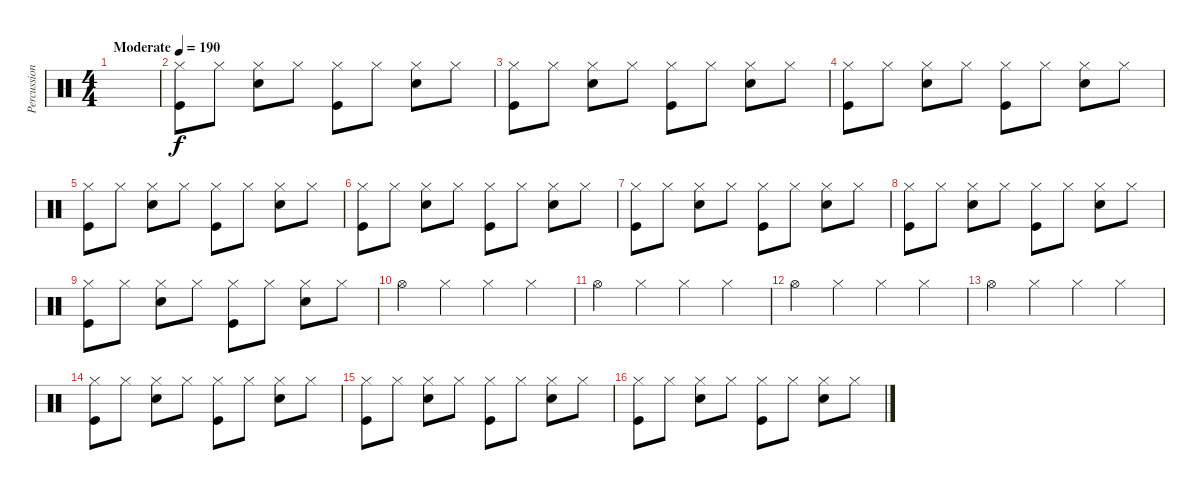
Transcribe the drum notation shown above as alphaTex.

\track ("Percussion" "Percussion") {instrument percussion}
\staff {score}
\articulation defaults
\ts (4 4)
\tempo (190 "Moderate")
\clef neutral
\ks c
|
("Hi-Hat (closed)" "Kick (hit)").8 "Hi-Hat (closed)".8 ("Hi-Hat (closed)" "Electric Snare (hit)").8 "Hi-Hat (closed)".8 ("Hi-Hat (closed)" "Kick (hit)").8 "Hi-Hat (closed)".8 ("Hi-Hat (closed)" "Electric Snare (hit)").8 "Hi-Hat (closed)".8 |
("Hi-Hat (closed)" "Kick (hit)").8 "Hi-Hat (closed)".8 ("Hi-Hat (closed)" "Electric Snare (hit)").8 "Hi-Hat (closed)".8 ("Hi-Hat (closed)" "Kick (hit)").8 "Hi-Hat (closed)".8 ("Hi-Hat (closed)" "Electric Snare (hit)").8 "Hi-Hat (closed)".8 |
("Hi-Hat (closed)" "Kick (hit)").8 "Hi-Hat (closed)".8 ("Hi-Hat (closed)" "Electric Snare (hit)").8 "Hi-Hat (closed)".8 ("Hi-Hat (closed)" "Kick (hit)").8 "Hi-Hat (closed)".8 ("Hi-Hat (closed)" "Electric Snare (hit)").8 "Hi-Hat (closed)".8 |
("Hi-Hat (closed)" "Kick (hit)").8 "Hi-Hat (closed)".8 ("Hi-Hat (closed)" "Electric Snare (hit)").8 "Hi-Hat (closed)".8 ("Hi-Hat (closed)" "Kick (hit)").8 "Hi-Hat (closed)".8 ("Hi-Hat (closed)" "Electric Snare (hit)").8 "Hi-Hat (closed)".8 |
("Hi-Hat (closed)" "Kick (hit)").8 "Hi-Hat (closed)".8 ("Hi-Hat (closed)" "Electric Snare (hit)").8 "Hi-Hat (closed)".8 ("Hi-Hat (closed)" "Kick (hit)").8 "Hi-Hat (closed)".8 ("Hi-Hat (closed)" "Electric Snare (hit)").8 "Hi-Hat (closed)".8 |
("Hi-Hat (closed)" "Kick (hit)").8 "Hi-Hat (closed)".8 ("Hi-Hat (closed)" "Electric Snare (hit)").8 "Hi-Hat (closed)".8 ("Hi-Hat (closed)" "Kick (hit)").8 "Hi-Hat (closed)".8 ("Hi-Hat (closed)" "Electric Snare (hit)").8 "Hi-Hat (closed)".8 |
("Hi-Hat (closed)" "Kick (hit)").8 "Hi-Hat (closed)".8 ("Hi-Hat (closed)" "Electric Snare (hit)").8 "Hi-Hat (closed)".8 ("Hi-Hat (closed)" "Kick (hit)").8 "Hi-Hat (closed)".8 ("Hi-Hat (closed)" "Electric Snare (hit)").8 "Hi-Hat (closed)".8 |
("Hi-Hat (closed)" "Kick (hit)").8 "Hi-Hat (closed)".8 ("Hi-Hat (closed)" "Electric Snare (hit)").8 "Hi-Hat (closed)".8 ("Hi-Hat (closed)" "Kick (hit)").8 "Hi-Hat (closed)".8 ("Hi-Hat (closed)" "Electric Snare (hit)").8 "Hi-Hat (closed)".8 |
"Hi-Hat (open)".4 "Hi-Hat (closed)".4 "Hi-Hat (closed)".4 "Hi-Hat (closed)".4 |
"Hi-Hat (open)".4 "Hi-Hat (closed)".4 "Hi-Hat (closed)".4 "Hi-Hat (closed)".4 |
"Hi-Hat (open)".4 "Hi-Hat (closed)".4 "Hi-Hat (closed)".4 "Hi-Hat (closed)".4 |
"Hi-Hat (open)".4 "Hi-Hat (closed)".4 "Hi-Hat (closed)".4 "Hi-Hat (closed)".4 |
("Hi-Hat (closed)" "Kick (hit)").8 "Hi-Hat (closed)".8 ("Hi-Hat (closed)" "Electric Snare (hit)").8 "Hi-Hat (closed)".8 ("Hi-Hat (closed)" "Kick (hit)").8 "Hi-Hat (closed)".8 ("Hi-Hat (closed)" "Electric Snare (hit)").8 "Hi-Hat (closed)".8 |
("Hi-Hat (closed)" "Kick (hit)").8 "Hi-Hat (closed)".8 ("Hi-Hat (closed)" "Electric Snare (hit)").8 "Hi-Hat (closed)".8 ("Hi-Hat (closed)" "Kick (hit)").8 "Hi-Hat (closed)".8 ("Hi-Hat (closed)" "Electric Snare (hit)").8 "Hi-Hat (closed)".8 |
("Hi-Hat (closed)" "Kick (hit)").8 "Hi-Hat (closed)".8 ("Hi-Hat (closed)" "Electric Snare (hit)").8 "Hi-Hat (closed)".8 ("Hi-Hat (closed)" "Kick (hit)").8 "Hi-Hat (closed)".8 ("Hi-Hat (closed)" "Electric Snare (hit)").8 "Hi-Hat (closed)".8
